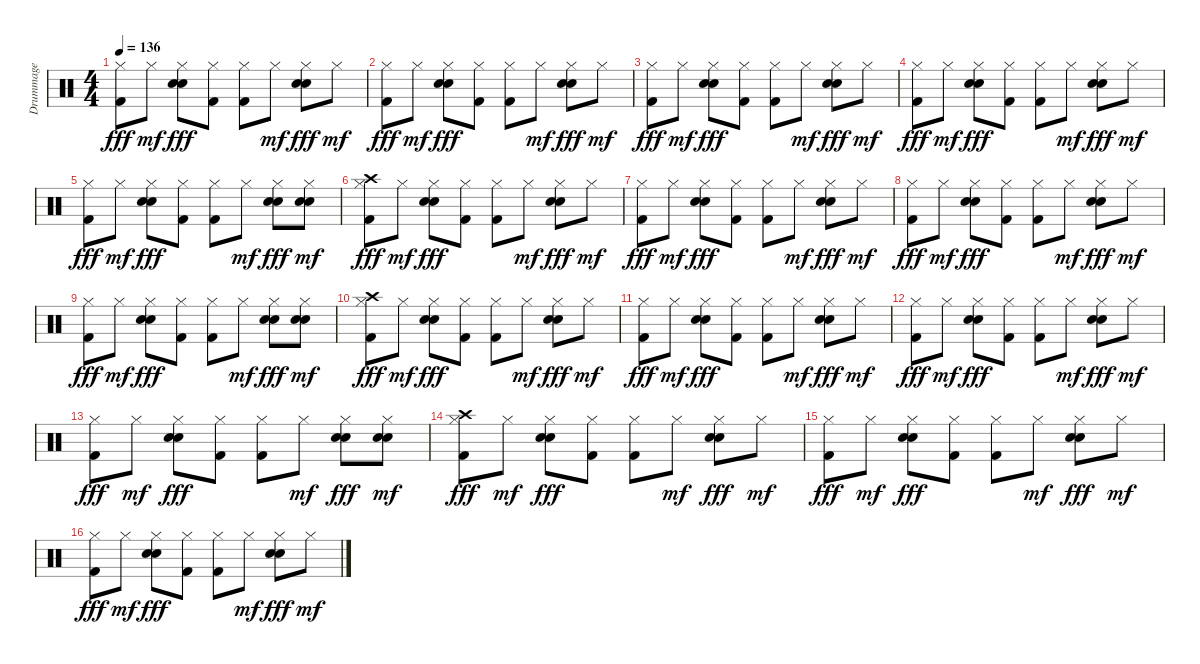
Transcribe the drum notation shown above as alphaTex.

\track ("Drummage" "Drummage") {instrument percussion}
\staff {score}
\articulation defaults
\ts (4 4)
\tempo 136
\clef neutral
\ks c
("Hi-Hat (closed)" "Kick (hit) 2").8{dy fff} "Hi-Hat (closed)".8{dy mf} ("Hi-Hat (closed)" "Snare (hit) 2" "Electric Snare (hit)").8{dy fff} ("Hi-Hat (closed)" "Kick (hit) 2").8 ("Hi-Hat (closed)" "Kick (hit) 2").8 "Hi-Hat (closed)".8{dy mf} ("Hi-Hat (closed)" "Electric Snare (hit)" "Snare (hit) 2").8{dy fff} "Hi-Hat (closed)".8{dy mf} |
("Hi-Hat (closed)" "Kick (hit) 2").8{dy fff} "Hi-Hat (closed)".8{dy mf} ("Hi-Hat (closed)" "Snare (hit) 2" "Electric Snare (hit)").8{dy fff} ("Hi-Hat (closed)" "Kick (hit) 2").8 ("Hi-Hat (closed)" "Kick (hit) 2").8 "Hi-Hat (closed)".8{dy mf} ("Hi-Hat (closed)" "Electric Snare (hit)" "Snare (hit) 2").8{dy fff} "Hi-Hat (closed)".8{dy mf} |
("Hi-Hat (closed)" "Kick (hit) 2").8{dy fff} "Hi-Hat (closed)".8{dy mf} ("Hi-Hat (closed)" "Snare (hit) 2" "Electric Snare (hit)").8{dy fff} ("Hi-Hat (closed)" "Kick (hit) 2").8 ("Hi-Hat (closed)" "Kick (hit) 2").8 "Hi-Hat (closed)".8{dy mf} ("Hi-Hat (closed)" "Electric Snare (hit)" "Snare (hit) 2").8{dy fff} "Hi-Hat (closed)".8{dy mf} |
("Hi-Hat (closed)" "Kick (hit) 2").8{dy fff} "Hi-Hat (closed)".8{dy mf} ("Hi-Hat (closed)" "Snare (hit) 2" "Electric Snare (hit)").8{dy fff} ("Hi-Hat (closed)" "Kick (hit) 2").8 ("Hi-Hat (closed)" "Kick (hit) 2").8 "Hi-Hat (closed)".8{dy mf} ("Hi-Hat (closed)" "Electric Snare (hit)" "Snare (hit) 2").8{dy fff} "Hi-Hat (closed)".8{dy mf} |
("Hi-Hat (closed)" "Kick (hit) 2").8{dy fff} "Hi-Hat (closed)".8{dy mf} ("Hi-Hat (closed)" "Snare (hit) 2" "Electric Snare (hit)").8{dy fff} ("Hi-Hat (closed)" "Kick (hit) 2").8 ("Hi-Hat (closed)" "Kick (hit) 2").8 "Hi-Hat (closed)".8{dy mf} ("Hi-Hat (closed)" "Electric Snare (hit)" "Snare (hit) 2").8{dy fff} ("Snare (hit) 2" "Electric Snare (hit)" "Hi-Hat (closed)").8{dy mf} |
("Crash high (hit)" "Hi-Hat (closed)" "Kick (hit) 2").8{dy fff} "Hi-Hat (closed)".8{dy mf} ("Hi-Hat (closed)" "Snare (hit) 2" "Electric Snare (hit)").8{dy fff} ("Hi-Hat (closed)" "Kick (hit) 2").8 ("Hi-Hat (closed)" "Kick (hit) 2").8 "Hi-Hat (closed)".8{dy mf} ("Hi-Hat (closed)" "Electric Snare (hit)" "Snare (hit) 2").8{dy fff} "Hi-Hat (closed)".8{dy mf} |
("Hi-Hat (closed)" "Kick (hit) 2").8{dy fff} "Hi-Hat (closed)".8{dy mf} ("Hi-Hat (closed)" "Snare (hit) 2" "Electric Snare (hit)").8{dy fff} ("Hi-Hat (closed)" "Kick (hit) 2").8 ("Hi-Hat (closed)" "Kick (hit) 2").8 "Hi-Hat (closed)".8{dy mf} ("Hi-Hat (closed)" "Electric Snare (hit)" "Snare (hit) 2").8{dy fff} "Hi-Hat (closed)".8{dy mf} |
("Hi-Hat (closed)" "Kick (hit) 2").8{dy fff} "Hi-Hat (closed)".8{dy mf} ("Hi-Hat (closed)" "Snare (hit) 2" "Electric Snare (hit)").8{dy fff} ("Hi-Hat (closed)" "Kick (hit) 2").8 ("Hi-Hat (closed)" "Kick (hit) 2").8 "Hi-Hat (closed)".8{dy mf} ("Hi-Hat (closed)" "Electric Snare (hit)" "Snare (hit) 2").8{dy fff} "Hi-Hat (closed)".8{dy mf} |
("Hi-Hat (closed)" "Kick (hit) 2").8{dy fff} "Hi-Hat (closed)".8{dy mf} ("Hi-Hat (closed)" "Snare (hit) 2" "Electric Snare (hit)").8{dy fff} ("Hi-Hat (closed)" "Kick (hit) 2").8 ("Hi-Hat (closed)" "Kick (hit) 2").8 "Hi-Hat (closed)".8{dy mf} ("Hi-Hat (closed)" "Electric Snare (hit)" "Snare (hit) 2").8{dy fff} ("Snare (hit) 2" "Electric Snare (hit)" "Hi-Hat (closed)").8{dy mf} |
("Crash high (hit)" "Hi-Hat (closed)" "Kick (hit) 2").8{dy fff} "Hi-Hat (closed)".8{dy mf} ("Hi-Hat (closed)" "Snare (hit) 2" "Electric Snare (hit)").8{dy fff} ("Hi-Hat (closed)" "Kick (hit) 2").8 ("Hi-Hat (closed)" "Kick (hit) 2").8 "Hi-Hat (closed)".8{dy mf} ("Hi-Hat (closed)" "Electric Snare (hit)" "Snare (hit) 2").8{dy fff} "Hi-Hat (closed)".8{dy mf} |
("Hi-Hat (closed)" "Kick (hit) 2").8{dy fff} "Hi-Hat (closed)".8{dy mf} ("Hi-Hat (closed)" "Snare (hit) 2" "Electric Snare (hit)").8{dy fff} ("Hi-Hat (closed)" "Kick (hit) 2").8 ("Hi-Hat (closed)" "Kick (hit) 2").8 "Hi-Hat (closed)".8{dy mf} ("Hi-Hat (closed)" "Electric Snare (hit)" "Snare (hit) 2").8{dy fff} "Hi-Hat (closed)".8{dy mf} |
("Hi-Hat (closed)" "Kick (hit) 2").8{dy fff} "Hi-Hat (closed)".8{dy mf} ("Hi-Hat (closed)" "Snare (hit) 2" "Electric Snare (hit)").8{dy fff} ("Hi-Hat (closed)" "Kick (hit) 2").8 ("Hi-Hat (closed)" "Kick (hit) 2").8 "Hi-Hat (closed)".8{dy mf} ("Hi-Hat (closed)" "Electric Snare (hit)" "Snare (hit) 2").8{dy fff} "Hi-Hat (closed)".8{dy mf} |
("Hi-Hat (closed)" "Kick (hit) 2").8{dy fff} "Hi-Hat (closed)".8{dy mf} ("Hi-Hat (closed)" "Snare (hit) 2" "Electric Snare (hit)").8{dy fff} ("Hi-Hat (closed)" "Kick (hit) 2").8 ("Hi-Hat (closed)" "Kick (hit) 2").8 "Hi-Hat (closed)".8{dy mf} ("Hi-Hat (closed)" "Electric Snare (hit)" "Snare (hit) 2").8{dy fff} ("Snare (hit) 2" "Electric Snare (hit)" "Hi-Hat (closed)").8{dy mf} |
("Crash high (hit)" "Hi-Hat (closed)" "Kick (hit) 2").8{dy fff} "Hi-Hat (closed)".8{dy mf} ("Hi-Hat (closed)" "Snare (hit) 2" "Electric Snare (hit)").8{dy fff} ("Hi-Hat (closed)" "Kick (hit) 2").8 ("Hi-Hat (closed)" "Kick (hit) 2").8 "Hi-Hat (closed)".8{dy mf} ("Hi-Hat (closed)" "Electric Snare (hit)" "Snare (hit) 2").8{dy fff} "Hi-Hat (closed)".8{dy mf} |
("Hi-Hat (closed)" "Kick (hit) 2").8{dy fff} "Hi-Hat (closed)".8{dy mf} ("Hi-Hat (closed)" "Snare (hit) 2" "Electric Snare (hit)").8{dy fff} ("Hi-Hat (closed)" "Kick (hit) 2").8 ("Hi-Hat (closed)" "Kick (hit) 2").8 "Hi-Hat (closed)".8{dy mf} ("Hi-Hat (closed)" "Electric Snare (hit)" "Snare (hit) 2").8{dy fff} "Hi-Hat (closed)".8{dy mf} |
("Hi-Hat (closed)" "Kick (hit) 2").8{dy fff} "Hi-Hat (closed)".8{dy mf} ("Hi-Hat (closed)" "Snare (hit) 2" "Electric Snare (hit)").8{dy fff} ("Hi-Hat (closed)" "Kick (hit) 2").8 ("Hi-Hat (closed)" "Kick (hit) 2").8 "Hi-Hat (closed)".8{dy mf} ("Hi-Hat (closed)" "Electric Snare (hit)" "Snare (hit) 2").8{dy fff} "Hi-Hat (closed)".8{dy mf}
